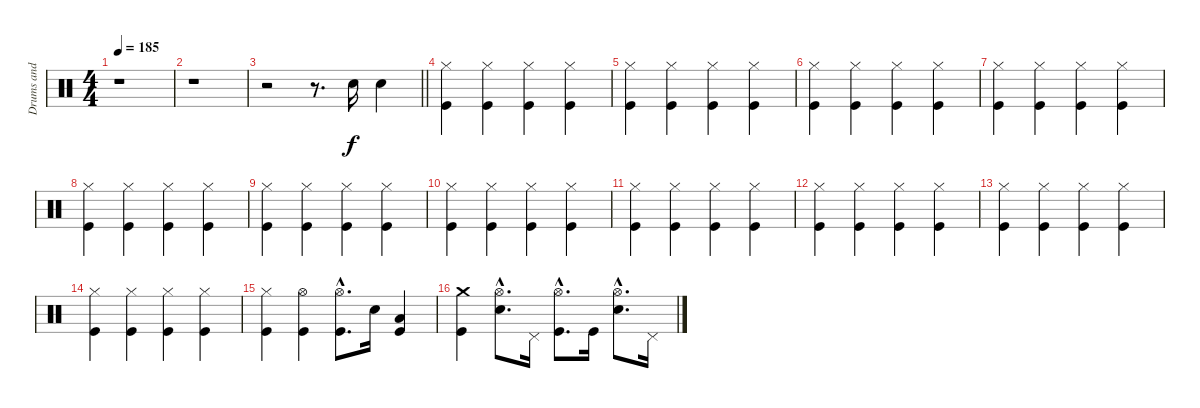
\track ("Drums and percussion" "Drums and ") {instrument percussion}
\staff {score}
\articulation defaults
\ts (4 4)
\tempo 185
\clef neutral
\ks c
r.1{dy f} |
r.1 |
\barLineRight lightlight
r.2 r.8{d} "Snare (hit) 2".16 "Snare (hit) 2".4 |
("Hi-Hat (closed)" "Kick (hit)").4 ("Hi-Hat (closed)" "Kick (hit)").4 ("Hi-Hat (closed)" "Kick (hit)").4 ("Hi-Hat (closed)" "Kick (hit)").4 |
("Hi-Hat (closed)" "Kick (hit)").4 ("Hi-Hat (closed)" "Kick (hit)").4 ("Hi-Hat (closed)" "Kick (hit)").4 ("Hi-Hat (closed)" "Kick (hit)").4 |
("Hi-Hat (closed)" "Kick (hit)").4 ("Hi-Hat (closed)" "Kick (hit)").4 ("Hi-Hat (closed)" "Kick (hit)").4 ("Hi-Hat (closed)" "Kick (hit)").4 |
("Hi-Hat (closed)" "Kick (hit)").4 ("Hi-Hat (closed)" "Kick (hit)").4 ("Hi-Hat (closed)" "Kick (hit)").4 ("Hi-Hat (closed)" "Kick (hit)").4 |
("Hi-Hat (closed)" "Kick (hit)").4 ("Hi-Hat (closed)" "Kick (hit)").4 ("Hi-Hat (closed)" "Kick (hit)").4 ("Hi-Hat (closed)" "Kick (hit)").4 |
("Hi-Hat (closed)" "Kick (hit)").4 ("Hi-Hat (closed)" "Kick (hit)").4 ("Hi-Hat (closed)" "Kick (hit)").4 ("Hi-Hat (closed)" "Kick (hit)").4 |
("Hi-Hat (closed)" "Kick (hit)").4 ("Hi-Hat (closed)" "Kick (hit)").4 ("Hi-Hat (closed)" "Kick (hit)").4 ("Hi-Hat (closed)" "Kick (hit)").4 |
("Hi-Hat (closed)" "Kick (hit)").4 ("Hi-Hat (closed)" "Kick (hit)").4 ("Hi-Hat (closed)" "Kick (hit)").4 ("Hi-Hat (closed)" "Kick (hit)").4 |
("Hi-Hat (closed)" "Kick (hit)").4 ("Hi-Hat (closed)" "Kick (hit)").4 ("Hi-Hat (closed)" "Kick (hit)").4 ("Hi-Hat (closed)" "Kick (hit)").4 |
("Hi-Hat (closed)" "Kick (hit)").4 ("Hi-Hat (closed)" "Kick (hit)").4 ("Hi-Hat (closed)" "Kick (hit)").4 ("Hi-Hat (closed)" "Kick (hit)").4 |
("Hi-Hat (closed)" "Kick (hit)").4 ("Hi-Hat (closed)" "Kick (hit)").4 ("Hi-Hat (closed)" "Kick (hit)").4 ("Hi-Hat (closed)" "Kick (hit)").4 |
("Hi-Hat (closed)" "Kick (hit)").4 ("Hi-Hat (open)" "Kick (hit)").4 ("Hi-Hat (open)"{hac} "Kick (hit)"{hac}).8{d} "Snare (hit) 2".16 ("Low Tom (hit)" "Kick (hit)").4 |
("Crash medium (hit)" "Kick (hit)").4 ("Hi-Hat (open)"{hac} "Snare (hit) 2"{hac}).8{d} "Pedal Hi-Hat (hit)".16 ("Hi-Hat (open)"{hac} "Kick (hit)"{hac}).8{d} "Kick (hit)".16 ("Hi-Hat (open)"{hac} "Snare (hit) 2"{hac}).8{d} "Pedal Hi-Hat (hit)".16
